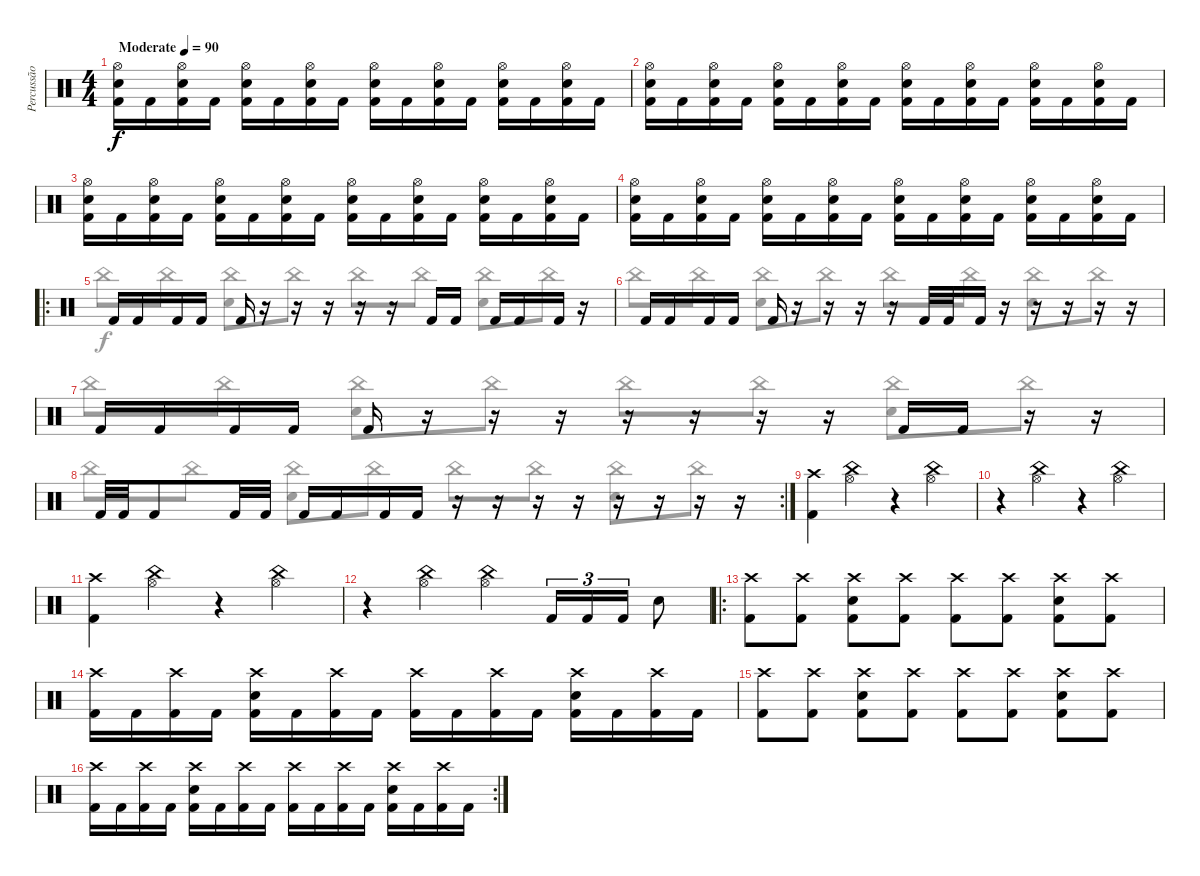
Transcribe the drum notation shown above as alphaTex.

\track ("Percussão" "Percussão") {instrument percussion}
\staff {score}
\articulation defaults
\voice
\ts (4 4)
\tempo (90 "Moderate")
\clef neutral
\ks c
("Kick (hit) 2" "Snare (hit) 2" "Hi-Hat (open)").16{dy f} "Kick (hit) 2".16 ("Kick (hit) 2" "Snare (hit) 2" "Hi-Hat (open)").16 "Kick (hit) 2".16 ("Kick (hit) 2" "Snare (hit) 2" "Hi-Hat (open)").16 "Kick (hit) 2".16 ("Kick (hit) 2" "Snare (hit) 2" "Hi-Hat (open)").16 "Kick (hit) 2".16 ("Kick (hit) 2" "Snare (hit) 2" "Hi-Hat (open)").16 "Kick (hit) 2".16 ("Kick (hit) 2" "Snare (hit) 2" "Hi-Hat (open)").16 "Kick (hit) 2".16 ("Kick (hit) 2" "Snare (hit) 2" "Hi-Hat (open)").16 "Kick (hit) 2".16 ("Kick (hit) 2" "Snare (hit) 2" "Hi-Hat (open)").16 "Kick (hit) 2".16 |
("Kick (hit) 2" "Snare (hit) 2" "Hi-Hat (open)").16 "Kick (hit) 2".16 ("Kick (hit) 2" "Snare (hit) 2" "Hi-Hat (open)").16 "Kick (hit) 2".16 ("Kick (hit) 2" "Snare (hit) 2" "Hi-Hat (open)").16 "Kick (hit) 2".16 ("Kick (hit) 2" "Snare (hit) 2" "Hi-Hat (open)").16 "Kick (hit) 2".16 ("Kick (hit) 2" "Snare (hit) 2" "Hi-Hat (open)").16 "Kick (hit) 2".16 ("Kick (hit) 2" "Snare (hit) 2" "Hi-Hat (open)").16 "Kick (hit) 2".16 ("Kick (hit) 2" "Snare (hit) 2" "Hi-Hat (open)").16 "Kick (hit) 2".16 ("Kick (hit) 2" "Snare (hit) 2" "Hi-Hat (open)").16 "Kick (hit) 2".16 |
("Kick (hit) 2" "Snare (hit) 2" "Hi-Hat (open)").16 "Kick (hit) 2".16 ("Kick (hit) 2" "Snare (hit) 2" "Hi-Hat (open)").16 "Kick (hit) 2".16 ("Kick (hit) 2" "Snare (hit) 2" "Hi-Hat (open)").16 "Kick (hit) 2".16 ("Kick (hit) 2" "Snare (hit) 2" "Hi-Hat (open)").16 "Kick (hit) 2".16 ("Kick (hit) 2" "Snare (hit) 2" "Hi-Hat (open)").16 "Kick (hit) 2".16 ("Kick (hit) 2" "Snare (hit) 2" "Hi-Hat (open)").16 "Kick (hit) 2".16 ("Kick (hit) 2" "Snare (hit) 2" "Hi-Hat (open)").16 "Kick (hit) 2".16 ("Kick (hit) 2" "Snare (hit) 2" "Hi-Hat (open)").16 "Kick (hit) 2".16 |
("Kick (hit) 2" "Snare (hit) 2" "Hi-Hat (open)").16 "Kick (hit) 2".16 ("Kick (hit) 2" "Snare (hit) 2" "Hi-Hat (open)").16 "Kick (hit) 2".16 ("Kick (hit) 2" "Snare (hit) 2" "Hi-Hat (open)").16 "Kick (hit) 2".16 ("Kick (hit) 2" "Snare (hit) 2" "Hi-Hat (open)").16 "Kick (hit) 2".16 ("Kick (hit) 2" "Snare (hit) 2" "Hi-Hat (open)").16 "Kick (hit) 2".16 ("Kick (hit) 2" "Snare (hit) 2" "Hi-Hat (open)").16 "Kick (hit) 2".16 ("Kick (hit) 2" "Snare (hit) 2" "Hi-Hat (open)").16 "Kick (hit) 2".16 ("Kick (hit) 2" "Snare (hit) 2" "Hi-Hat (open)").16 "Kick (hit) 2".16 |
\ro "Kick (hit) 2".16 "Kick (hit) 2".16 "Kick (hit) 2".16 "Kick (hit) 2".16 "Kick (hit) 2".16
r.16 r.16 r.16 r.16 r.16 "Kick (hit) 2".16 "Kick (hit) 2".16 "Kick (hit) 2".16 "Kick (hit) 2".16 "Kick (hit) 2".16 r.16 |
"Kick (hit) 2".16 "Kick (hit) 2".16 "Kick (hit) 2".16 "Kick (hit) 2".16 "Kick (hit) 2".16 r.16 r.16 r.16 r.16 "Kick (hit) 2".32 "Kick (hit) 2".32 "Kick (hit) 2".16 r.16 r.16 r.16 r.16 r.16 |
"Kick (hit) 2".16 "Kick (hit) 2".16 "Kick (hit) 2".16 "Kick (hit) 2".16 "Kick (hit) 2".16 r.16 r.16 r.16 r.16 r.16 r.16 r.16 "Kick (hit) 2".16 "Kick (hit) 2".16 r.16 r.16 |
\rc 2 "Kick (hit) 2".32 "Kick (hit) 2".32 "Kick (hit) 2".8 "Kick (hit) 2".32 "Kick (hit) 2".32 "Kick (hit) 2".16 "Kick (hit) 2".16 "Kick (hit) 2".16 "Kick (hit) 2".16
r.16 r.16 r.16 r.16 r.16 r.16 r.16 r.16 |
("Crash high (hit)" "Kick (hit) 2").4 ("China (hit)" "Hi-Hat (open)").4 r.4 ("China (hit)" "Hi-Hat (open)").4 |
r.4 ("China (hit)" "Hi-Hat (open)").4 r.4 ("China (hit)" "Hi-Hat (open)").4 |
("Crash high (hit)" "Kick (hit) 2").4 ("China (hit)" "Hi-Hat (open)").4 r.4 ("China (hit)" "Hi-Hat (open)").4 |
r.4 ("China (hit)" "Hi-Hat (open)").4 ("China (hit)" "Hi-Hat (open)").4 "Kick (hit) 2".16{tu (3 2)} "Kick (hit) 2".16{tu (3 2)} "Kick (hit) 2".16{tu (3 2)} "Snare (hit) 2".8 |
\ro
("Crash high (hit)" "Kick (hit) 2").8 ("Crash high (hit)" "Kick (hit) 2").8 ("Crash high (hit)" "Snare (hit) 2" "Kick (hit) 2").8 ("Crash high (hit)" "Kick (hit) 2").8 ("Crash high (hit)" "Kick (hit) 2").8 ("Crash high (hit)" "Kick (hit) 2").8 ("Crash high (hit)" "Snare (hit) 2" "Kick (hit) 2").8 ("Crash high (hit)" "Kick (hit) 2").8 |
("Crash high (hit)" "Kick (hit) 2").16 "Kick (hit) 2".16 ("Crash high (hit)" "Kick (hit) 2").16 "Kick (hit) 2".16 ("Crash high (hit)" "Snare (hit) 2" "Kick (hit) 2").16 "Kick (hit) 2".16 ("Crash high (hit)" "Kick (hit) 2").16 "Kick (hit) 2".16 ("Crash high (hit)" "Kick (hit) 2").16 "Kick (hit) 2".16 ("Crash high (hit)" "Kick (hit) 2").16 "Kick (hit) 2".16 ("Crash high (hit)" "Snare (hit) 2" "Kick (hit) 2").16 "Kick (hit) 2".16 ("Crash high (hit)" "Kick (hit) 2").16 "Kick (hit) 2".16 |
("Crash high (hit)" "Kick (hit) 2").8 ("Crash high (hit)" "Kick (hit) 2").8 ("Crash high (hit)" "Snare (hit) 2" "Kick (hit) 2").8 ("Crash high (hit)" "Kick (hit) 2").8 ("Crash high (hit)" "Kick (hit) 2").8 ("Crash high (hit)" "Kick (hit) 2").8 ("Crash high (hit)" "Snare (hit) 2" "Kick (hit) 2").8 ("Crash high (hit)" "Kick (hit) 2").8 |
\rc 2
("Crash high (hit)" "Kick (hit) 2").16 "Kick (hit) 2".16 ("Crash high (hit)" "Kick (hit) 2").16 "Kick (hit) 2".16 ("Crash high (hit)" "Snare (hit) 2" "Kick (hit) 2").16 "Kick (hit) 2".16 ("Crash high (hit)" "Kick (hit) 2").16 "Kick (hit) 2".16 ("Crash high (hit)" "Kick (hit) 2").16 "Kick (hit) 2".16 ("Crash high (hit)" "Kick (hit) 2").16 "Kick (hit) 2".16 ("Crash high (hit)" "Snare (hit) 2" "Kick (hit) 2").16 "Kick (hit) 2".16 ("Crash high (hit)" "Kick (hit) 2").16 "Kick (hit) 2".16
\voice
\clef neutral
\ottava regular
\simile none
\ks c
|
|
|
|
"China (hit)".8 "China (hit)".8 ("China (hit)" "Snare (hit) 2").8 "China (hit)".8 "China (hit)".8 "China (hit)".8 ("China (hit)" "Snare (hit) 2").8 "China (hit)".8 |
"China (hit)".8 "China (hit)".8 ("China (hit)" "Snare (hit) 2").8 "China (hit)".8 "China (hit)".8 "China (hit)".8 ("China (hit)" "Snare (hit) 2").8 "China (hit)".8 |
"China (hit)".8 "China (hit)".8 ("China (hit)" "Snare (hit) 2").8 "China (hit)".8 "China (hit)".8 "China (hit)".8 ("China (hit)" "Snare (hit) 2").8 "China (hit)".8 |
"China (hit)".8 "China (hit)".8 ("China (hit)" "Snare (hit) 2").8 "China (hit)".8 "China (hit)".8 "China (hit)".8 ("China (hit)" "Snare (hit) 2").8 "China (hit)".8 |
|
|
|
|
|
|
|
